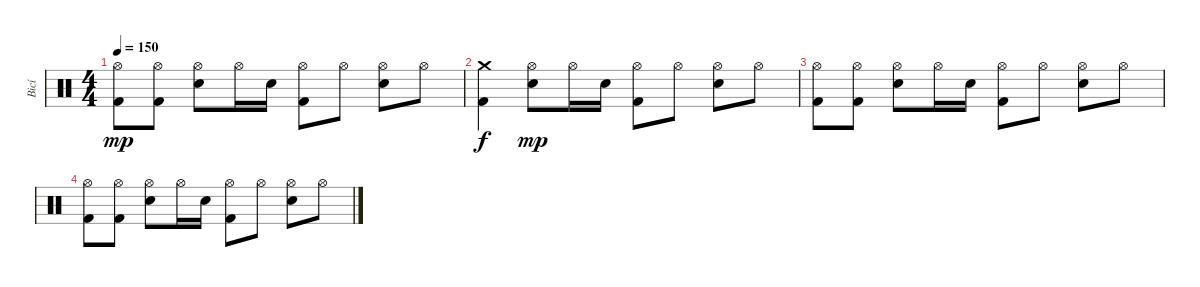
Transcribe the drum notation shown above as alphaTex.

\track ("Bicí" "Bicí") {instrument percussion}
\staff {score}
\articulation defaults
\ts (4 4)
\tempo 150
\clef neutral
\ks c
("Hi-Hat (open)" "Kick (hit) 2").8{dy mp} ("Hi-Hat (open)" "Kick (hit) 2").8 ("Hi-Hat (open)" "Electric Snare (hit)").8 "Hi-Hat (open)".16 "Electric Snare (hit)".16 ("Hi-Hat (open)" "Kick (hit) 2").8 "Hi-Hat (open)".8 ("Hi-Hat (open)" "Electric Snare (hit)").8 "Hi-Hat (open)".8 |
("Crash medium (hit)" "Kick (hit) 2").4{dy f} ("Hi-Hat (open)" "Electric Snare (hit)").8{dy mp} "Hi-Hat (open)".16 "Electric Snare (hit)".16 ("Hi-Hat (open)" "Kick (hit) 2").8 "Hi-Hat (open)".8 ("Hi-Hat (open)" "Electric Snare (hit)").8 "Hi-Hat (open)".8 |
("Hi-Hat (open)" "Kick (hit) 2").8 ("Hi-Hat (open)" "Kick (hit) 2").8 ("Hi-Hat (open)" "Electric Snare (hit)").8 "Hi-Hat (open)".16 "Electric Snare (hit)".16 ("Hi-Hat (open)" "Kick (hit) 2").8 "Hi-Hat (open)".8 ("Hi-Hat (open)" "Electric Snare (hit)").8 "Hi-Hat (open)".8 |
("Hi-Hat (open)" "Kick (hit) 2").8 ("Hi-Hat (open)" "Kick (hit) 2").8 ("Hi-Hat (open)" "Electric Snare (hit)").8 "Hi-Hat (open)".16 "Electric Snare (hit)".16 ("Hi-Hat (open)" "Kick (hit) 2").8 "Hi-Hat (open)".8 ("Hi-Hat (open)" "Electric Snare (hit)").8 "Hi-Hat (open)".8
